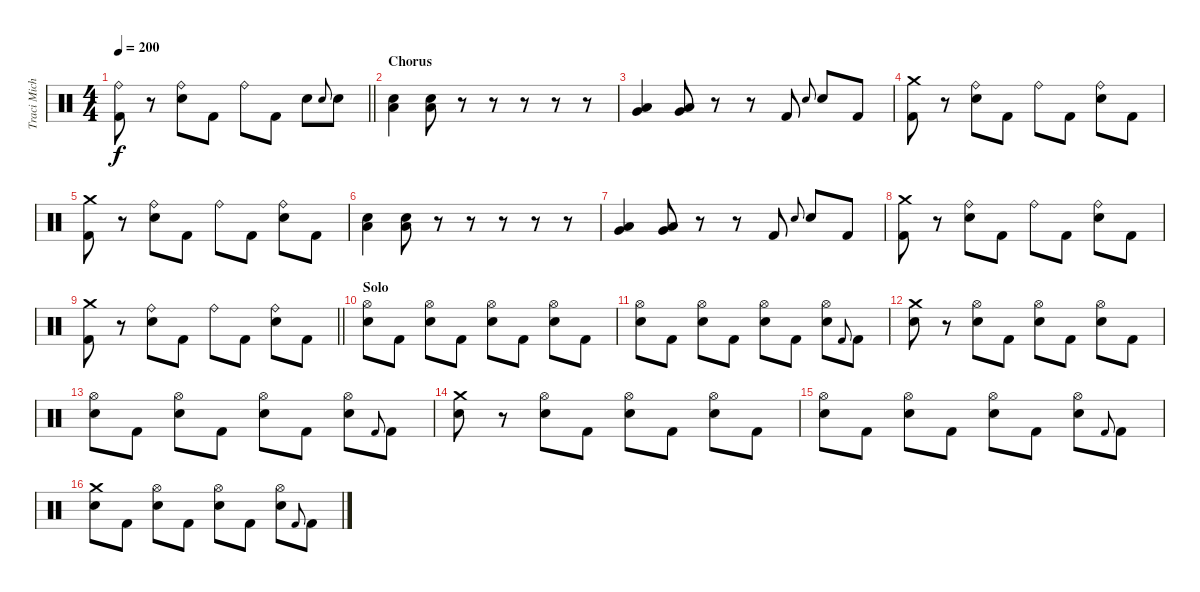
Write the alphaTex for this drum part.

\track ("Traci Michaelz" "Traci Mich") {instrument percussion}
\staff {score}
\articulation defaults
\ts (4 4)
\tempo 200
\clef neutral
\barLineRight lightlight
\ks c
("Ride (bell)" "Kick (hit) 2").8{dy f} r.8 ("Ride (bell)" "Snare (hit) 2").8 "Kick (hit) 2".8 "Ride (bell)".8 "Kick (hit) 2".8 "Snare (hit) 2".8 "Snare (hit) 2".8{gr onbeat} "Snare (hit) 2".8 |
\section ("" "Chorus")
("Snare (hit) 2" "Low Floor Tom (hit)").4 ("Snare (hit) 2" "Low Floor Tom (hit)").8 r.8 r.8 r.8 r.8 r.8 |
("Very Low Tom (hit)" "Low Floor Tom (hit)").4 ("Very Low Tom (hit)" "Low Floor Tom (hit)").8 r.8 r.8 "Kick (hit) 2".8 "Snare (hit) 2".8{gr onbeat} "Snare (hit) 2".8 "Kick (hit) 2".8 |
("Crash medium (hit)" "Kick (hit) 2").8 r.8 ("Ride (bell)" "Snare (hit) 2").8 "Kick (hit) 2".8 "Ride (bell)".8 "Kick (hit) 2".8 ("Ride (bell)" "Snare (hit) 2").8 "Kick (hit) 2".8 |
("Crash medium (hit)" "Kick (hit) 2").8 r.8 ("Ride (bell)" "Snare (hit) 2").8 "Kick (hit) 2".8 "Ride (bell)".8 "Kick (hit) 2".8 ("Ride (bell)" "Snare (hit) 2").8 "Kick (hit) 2".8 |
("Snare (hit) 2" "Low Floor Tom (hit)").4 ("Snare (hit) 2" "Low Floor Tom (hit)").8 r.8 r.8 r.8 r.8 r.8 |
("Very Low Tom (hit)" "Low Floor Tom (hit)").4 ("Very Low Tom (hit)" "Low Floor Tom (hit)").8 r.8 r.8 "Kick (hit) 2".8 "Snare (hit) 2".8{gr onbeat} "Snare (hit) 2".8 "Kick (hit) 2".8 |
("Crash medium (hit)" "Kick (hit) 2").8 r.8 ("Ride (bell)" "Snare (hit) 2").8 "Kick (hit) 2".8 "Ride (bell)".8 "Kick (hit) 2".8 ("Ride (bell)" "Snare (hit) 2").8 "Kick (hit) 2".8 |
\barLineRight lightlight
("Crash medium (hit)" "Kick (hit) 2").8 r.8 ("Ride (bell)" "Snare (hit) 2").8 "Kick (hit) 2".8 "Ride (bell)".8 "Kick (hit) 2".8 ("Ride (bell)" "Snare (hit) 2").8 "Kick (hit) 2".8 |
\section ("" "Solo")
("Hi-Hat (open)" "Snare (hit) 2").8 "Kick (hit) 2".8 ("Hi-Hat (open)" "Snare (hit) 2").8 "Kick (hit) 2".8 ("Hi-Hat (open)" "Snare (hit) 2").8 "Kick (hit) 2".8 ("Hi-Hat (open)" "Snare (hit) 2").8 "Kick (hit) 2".8 |
("Hi-Hat (open)" "Snare (hit) 2").8 "Kick (hit) 2".8 ("Hi-Hat (open)" "Snare (hit) 2").8 "Kick (hit) 2".8 ("Hi-Hat (open)" "Snare (hit) 2").8 "Kick (hit) 2".8 ("Hi-Hat (open)" "Snare (hit) 2").8 "Kick (hit) 2".8{gr onbeat} "Kick (hit) 2".8 |
("Crash medium (hit)" "Snare (hit) 2").8 r.8 ("Hi-Hat (open)" "Snare (hit) 2").8 "Kick (hit) 2".8 ("Hi-Hat (open)" "Snare (hit) 2").8 "Kick (hit) 2".8 ("Hi-Hat (open)" "Snare (hit) 2").8 "Kick (hit) 2".8 |
("Hi-Hat (open)" "Snare (hit) 2").8 "Kick (hit) 2".8 ("Hi-Hat (open)" "Snare (hit) 2").8 "Kick (hit) 2".8 ("Hi-Hat (open)" "Snare (hit) 2").8 "Kick (hit) 2".8 ("Hi-Hat (open)" "Snare (hit) 2").8 "Kick (hit) 2".8{gr onbeat} "Kick (hit) 2".8 |
("Crash medium (hit)" "Snare (hit) 2").8 r.8 ("Hi-Hat (open)" "Snare (hit) 2").8 "Kick (hit) 2".8 ("Hi-Hat (open)" "Snare (hit) 2").8 "Kick (hit) 2".8 ("Hi-Hat (open)" "Snare (hit) 2").8 "Kick (hit) 2".8 |
("Hi-Hat (open)" "Snare (hit) 2").8 "Kick (hit) 2".8 ("Hi-Hat (open)" "Snare (hit) 2").8 "Kick (hit) 2".8 ("Hi-Hat (open)" "Snare (hit) 2").8 "Kick (hit) 2".8 ("Hi-Hat (open)" "Snare (hit) 2").8 "Kick (hit) 2".8{gr onbeat} "Kick (hit) 2".8 |
("Crash medium (hit)" "Snare (hit) 2").8 "Kick (hit) 2".8 ("Hi-Hat (open)" "Snare (hit) 2").8 "Kick (hit) 2".8 ("Hi-Hat (open)" "Snare (hit) 2").8 "Kick (hit) 2".8 ("Hi-Hat (open)" "Snare (hit) 2").8 "Kick (hit) 2".8{gr onbeat} "Kick (hit) 2".8
